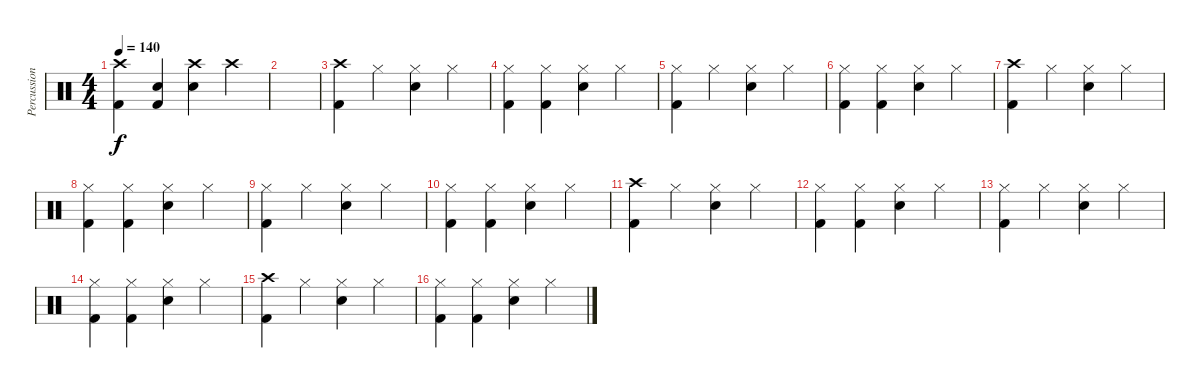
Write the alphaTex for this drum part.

\track ("Percussion" "Percussion") {instrument percussion}
\staff {score}
\articulation defaults
\ts (4 4)
\tempo 140
\clef neutral
\ks c
("Crash high (hit)" "Kick (hit) 2").4{dy f} ("Electric Snare (hit)" "Kick (hit) 2").4 ("Crash high (hit)" "Electric Snare (hit)").4 "Crash high (hit)".4 |
|
("Crash high (hit)" "Kick (hit) 2").4 "Hi-Hat (closed)".4 ("Hi-Hat (closed)" "Electric Snare (hit)").4 "Hi-Hat (closed)".4 |
("Hi-Hat (closed)" "Kick (hit) 2").4 ("Hi-Hat (closed)" "Kick (hit) 2").4 ("Hi-Hat (closed)" "Electric Snare (hit)").4 "Hi-Hat (closed)".4 |
("Hi-Hat (closed)" "Kick (hit) 2").4 "Hi-Hat (closed)".4 ("Hi-Hat (closed)" "Electric Snare (hit)").4 "Hi-Hat (closed)".4 |
("Hi-Hat (closed)" "Kick (hit) 2").4 ("Hi-Hat (closed)" "Kick (hit) 2").4 ("Hi-Hat (closed)" "Electric Snare (hit)").4 "Hi-Hat (closed)".4 |
("Crash high (hit)" "Kick (hit) 2").4 "Hi-Hat (closed)".4 ("Hi-Hat (closed)" "Electric Snare (hit)").4 "Hi-Hat (closed)".4 |
("Hi-Hat (closed)" "Kick (hit) 2").4 ("Hi-Hat (closed)" "Kick (hit) 2").4 ("Hi-Hat (closed)" "Electric Snare (hit)").4 "Hi-Hat (closed)".4 |
("Hi-Hat (closed)" "Kick (hit) 2").4 "Hi-Hat (closed)".4 ("Hi-Hat (closed)" "Electric Snare (hit)").4 "Hi-Hat (closed)".4 |
("Hi-Hat (closed)" "Kick (hit) 2").4 ("Hi-Hat (closed)" "Kick (hit) 2").4 ("Hi-Hat (closed)" "Electric Snare (hit)").4 "Hi-Hat (closed)".4 |
("Crash high (hit)" "Kick (hit) 2").4 "Hi-Hat (closed)".4 ("Hi-Hat (closed)" "Electric Snare (hit)").4 "Hi-Hat (closed)".4 |
("Hi-Hat (closed)" "Kick (hit) 2").4 ("Hi-Hat (closed)" "Kick (hit) 2").4 ("Hi-Hat (closed)" "Electric Snare (hit)").4 "Hi-Hat (closed)".4 |
("Hi-Hat (closed)" "Kick (hit) 2").4 "Hi-Hat (closed)".4 ("Hi-Hat (closed)" "Electric Snare (hit)").4 "Hi-Hat (closed)".4 |
("Hi-Hat (closed)" "Kick (hit) 2").4 ("Hi-Hat (closed)" "Kick (hit) 2").4 ("Hi-Hat (closed)" "Electric Snare (hit)").4 "Hi-Hat (closed)".4 |
("Crash high (hit)" "Kick (hit) 2").4 "Hi-Hat (closed)".4 ("Hi-Hat (closed)" "Electric Snare (hit)").4 "Hi-Hat (closed)".4 |
("Hi-Hat (closed)" "Kick (hit) 2").4 ("Hi-Hat (closed)" "Kick (hit) 2").4 ("Hi-Hat (closed)" "Electric Snare (hit)").4 "Hi-Hat (closed)".4
